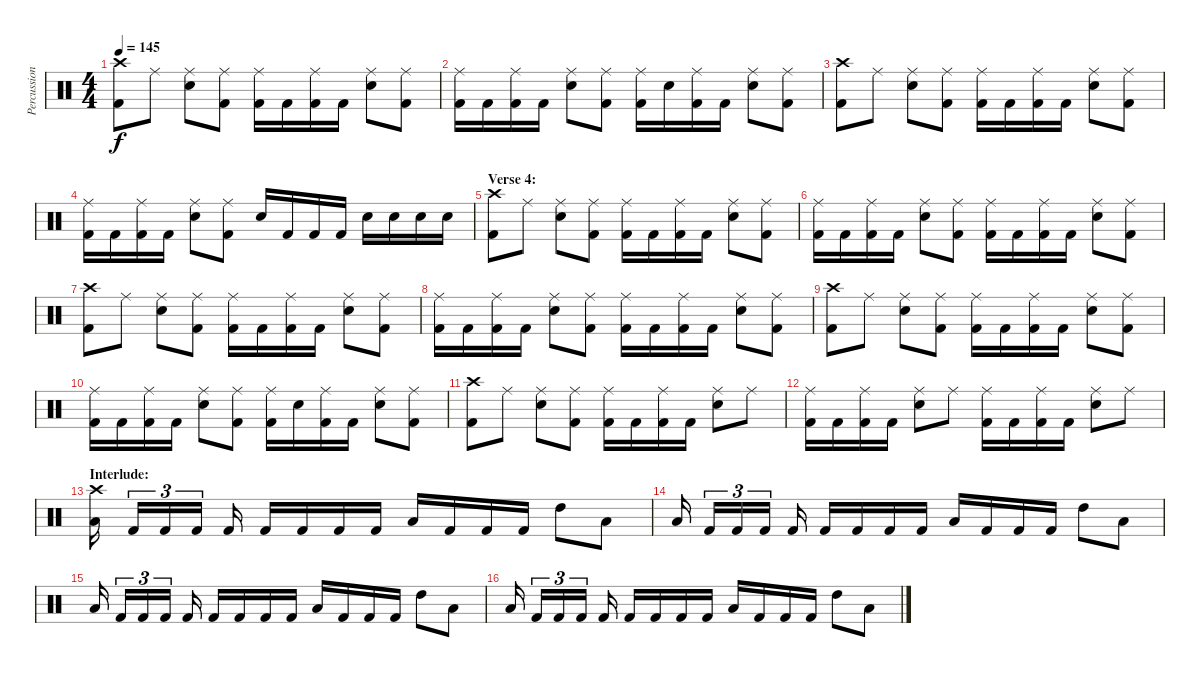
\track ("Percussion" "Percussion") {instrument percussion}
\staff {score}
\articulation defaults
\ts (4 4)
\tempo 145
\clef neutral
\ks c
("Crash high (hit)" "Kick (hit) 2").8{dy f} "Ride (middle)".8 ("Ride (middle)" "Electric Snare (hit)").8 ("Ride (middle)" "Kick (hit) 2").8 ("Ride (middle)" "Kick (hit) 2").16 "Kick (hit) 2".16 ("Ride (middle)" "Kick (hit) 2").16 "Kick (hit) 2".16 ("Ride (middle)" "Electric Snare (hit)").8 ("Ride (middle)" "Kick (hit) 2").8 |
("Ride (middle)" "Kick (hit) 2").16 "Kick (hit) 2".16 ("Ride (middle)" "Kick (hit) 2").16 "Kick (hit) 2".16 ("Ride (middle)" "Electric Snare (hit)").8 ("Ride (middle)" "Kick (hit) 2").8 ("Ride (middle)" "Kick (hit) 2").16 "Electric Snare (hit)".16 ("Ride (middle)" "Kick (hit) 2").16 "Kick (hit) 2".16 ("Ride (middle)" "Electric Snare (hit)").8 ("Ride (middle)" "Kick (hit) 2").8 |
("Crash high (hit)" "Kick (hit) 2").8 "Ride (middle)".8 ("Ride (middle)" "Electric Snare (hit)").8 ("Ride (middle)" "Kick (hit) 2").8 ("Ride (middle)" "Kick (hit) 2").16 "Kick (hit) 2".16 ("Ride (middle)" "Kick (hit) 2").16 "Kick (hit) 2".16 ("Ride (middle)" "Electric Snare (hit)").8 ("Ride (middle)" "Kick (hit) 2").8 |
("Ride (middle)" "Kick (hit) 2").16 "Kick (hit) 2".16 ("Ride (middle)" "Kick (hit) 2").16 "Kick (hit) 2".16 ("Ride (middle)" "Electric Snare (hit)").8 ("Ride (middle)" "Kick (hit) 2").8 "Electric Snare (hit)".16 "Kick (hit) 2".16 "Kick (hit) 2".16 "Kick (hit) 2".16 "Electric Snare (hit)".16 "Electric Snare (hit)".16 "Electric Snare (hit)".16 "Electric Snare (hit)".16 |
\section ("" "Verse 4:")
("Crash high (hit)" "Kick (hit) 2").8 "Ride (middle)".8 ("Ride (middle)" "Electric Snare (hit)").8 ("Ride (middle)" "Kick (hit) 2").8 ("Ride (middle)" "Kick (hit) 2").16 "Kick (hit) 2".16 ("Ride (middle)" "Kick (hit) 2").16 "Kick (hit) 2".16 ("Ride (middle)" "Electric Snare (hit)").8 ("Ride (middle)" "Kick (hit) 2").8 |
("Ride (middle)" "Kick (hit) 2").16 "Kick (hit) 2".16 ("Ride (middle)" "Kick (hit) 2").16 "Kick (hit) 2".16 ("Ride (middle)" "Electric Snare (hit)").8 ("Ride (middle)" "Kick (hit) 2").8 ("Ride (middle)" "Kick (hit) 2").16 "Kick (hit) 2".16 ("Ride (middle)" "Kick (hit) 2").16 "Kick (hit) 2".16 ("Ride (middle)" "Electric Snare (hit)").8 ("Ride (middle)" "Kick (hit) 2").8 |
("Crash high (hit)" "Kick (hit) 2").8 "Ride (middle)".8 ("Ride (middle)" "Electric Snare (hit)").8 ("Ride (middle)" "Kick (hit) 2").8 ("Ride (middle)" "Kick (hit) 2").16 "Kick (hit) 2".16 ("Ride (middle)" "Kick (hit) 2").16 "Kick (hit) 2".16 ("Ride (middle)" "Electric Snare (hit)").8 ("Ride (middle)" "Kick (hit) 2").8 |
("Ride (middle)" "Kick (hit) 2").16 "Kick (hit) 2".16 ("Ride (middle)" "Kick (hit) 2").16 "Kick (hit) 2".16 ("Ride (middle)" "Electric Snare (hit)").8 ("Ride (middle)" "Kick (hit) 2").8 ("Ride (middle)" "Kick (hit) 2").16 "Kick (hit) 2".16 ("Ride (middle)" "Kick (hit) 2").16 "Kick (hit) 2".16 ("Ride (middle)" "Electric Snare (hit)").8 ("Ride (middle)" "Kick (hit) 2").8 |
("Crash high (hit)" "Kick (hit) 2").8 "Ride (middle)".8 ("Ride (middle)" "Electric Snare (hit)").8 ("Ride (middle)" "Kick (hit) 2").8 ("Ride (middle)" "Kick (hit) 2").16 "Kick (hit) 2".16 ("Ride (middle)" "Kick (hit) 2").16 "Kick (hit) 2".16 ("Ride (middle)" "Electric Snare (hit)").8 ("Ride (middle)" "Kick (hit) 2").8 |
("Ride (middle)" "Kick (hit) 2").16 "Kick (hit) 2".16 ("Ride (middle)" "Kick (hit) 2").16 "Kick (hit) 2".16 ("Ride (middle)" "Electric Snare (hit)").8 ("Ride (middle)" "Kick (hit) 2").8 ("Ride (middle)" "Kick (hit) 2").16 "Electric Snare (hit)".16 ("Ride (middle)" "Kick (hit) 2").16 "Kick (hit) 2".16 ("Ride (middle)" "Electric Snare (hit)").8 ("Ride (middle)" "Kick (hit) 2").8 |
("Crash high (hit)" "Kick (hit) 2").8 "Ride (middle)".8 ("Ride (middle)" "Electric Snare (hit)").8 ("Ride (middle)" "Kick (hit) 2").8 ("Ride (middle)" "Kick (hit) 2").16 "Kick (hit) 2".16 ("Ride (middle)" "Kick (hit) 2").16 "Kick (hit) 2".16 ("Ride (middle)" "Electric Snare (hit)").8 "Ride (middle)".8 |
("Ride (middle)" "Kick (hit) 2").16 "Kick (hit) 2".16 ("Ride (middle)" "Kick (hit) 2").16 "Kick (hit) 2".16 ("Ride (middle)" "Electric Snare (hit)").8 "Ride (middle)".8 ("Ride (middle)" "Kick (hit) 2").16 "Kick (hit) 2".16 ("Ride (middle)" "Kick (hit) 2").16 "Kick (hit) 2".16 ("Ride (middle)" "Electric Snare (hit)").8 "Ride (middle)".8 |
\section ("" "Interlude:")
("Crash high (hit)" "Low Tom (hit)").16 "Kick (hit) 2".16{tu (3 2)} "Kick (hit) 2".16{tu (3 2)} "Kick (hit) 2".16{tu (3 2)} "Kick (hit) 2".16 "Kick (hit) 2".16 "Kick (hit) 2".16 "Kick (hit) 2".16 "Kick (hit) 2".16 "Low Tom (hit)".16 "Kick (hit) 2".16 "Kick (hit) 2".16 "Kick (hit) 2".16 "High Tom (hit)".8 "Low Tom (hit)".8 |
"Low Tom (hit)".16 "Kick (hit) 2".16{tu (3 2)} "Kick (hit) 2".16{tu (3 2)} "Kick (hit) 2".16{tu (3 2)} "Kick (hit) 2".16 "Kick (hit) 2".16 "Kick (hit) 2".16 "Kick (hit) 2".16 "Kick (hit) 2".16 "Low Tom (hit)".16 "Kick (hit) 2".16 "Kick (hit) 2".16 "Kick (hit) 2".16 "High Tom (hit)".8 "Low Tom (hit)".8 |
"Low Tom (hit)".16 "Kick (hit) 2".16{tu (3 2)} "Kick (hit) 2".16{tu (3 2)} "Kick (hit) 2".16{tu (3 2)} "Kick (hit) 2".16 "Kick (hit) 2".16 "Kick (hit) 2".16 "Kick (hit) 2".16 "Kick (hit) 2".16 "Low Tom (hit)".16 "Kick (hit) 2".16 "Kick (hit) 2".16 "Kick (hit) 2".16 "High Tom (hit)".8 "Low Tom (hit)".8 |
"Low Tom (hit)".16 "Kick (hit) 2".16{tu (3 2)} "Kick (hit) 2".16{tu (3 2)} "Kick (hit) 2".16{tu (3 2)} "Kick (hit) 2".16 "Kick (hit) 2".16 "Kick (hit) 2".16 "Kick (hit) 2".16 "Kick (hit) 2".16 "Low Tom (hit)".16 "Kick (hit) 2".16 "Kick (hit) 2".16 "Kick (hit) 2".16 "High Tom (hit)".8 "Low Tom (hit)".8
